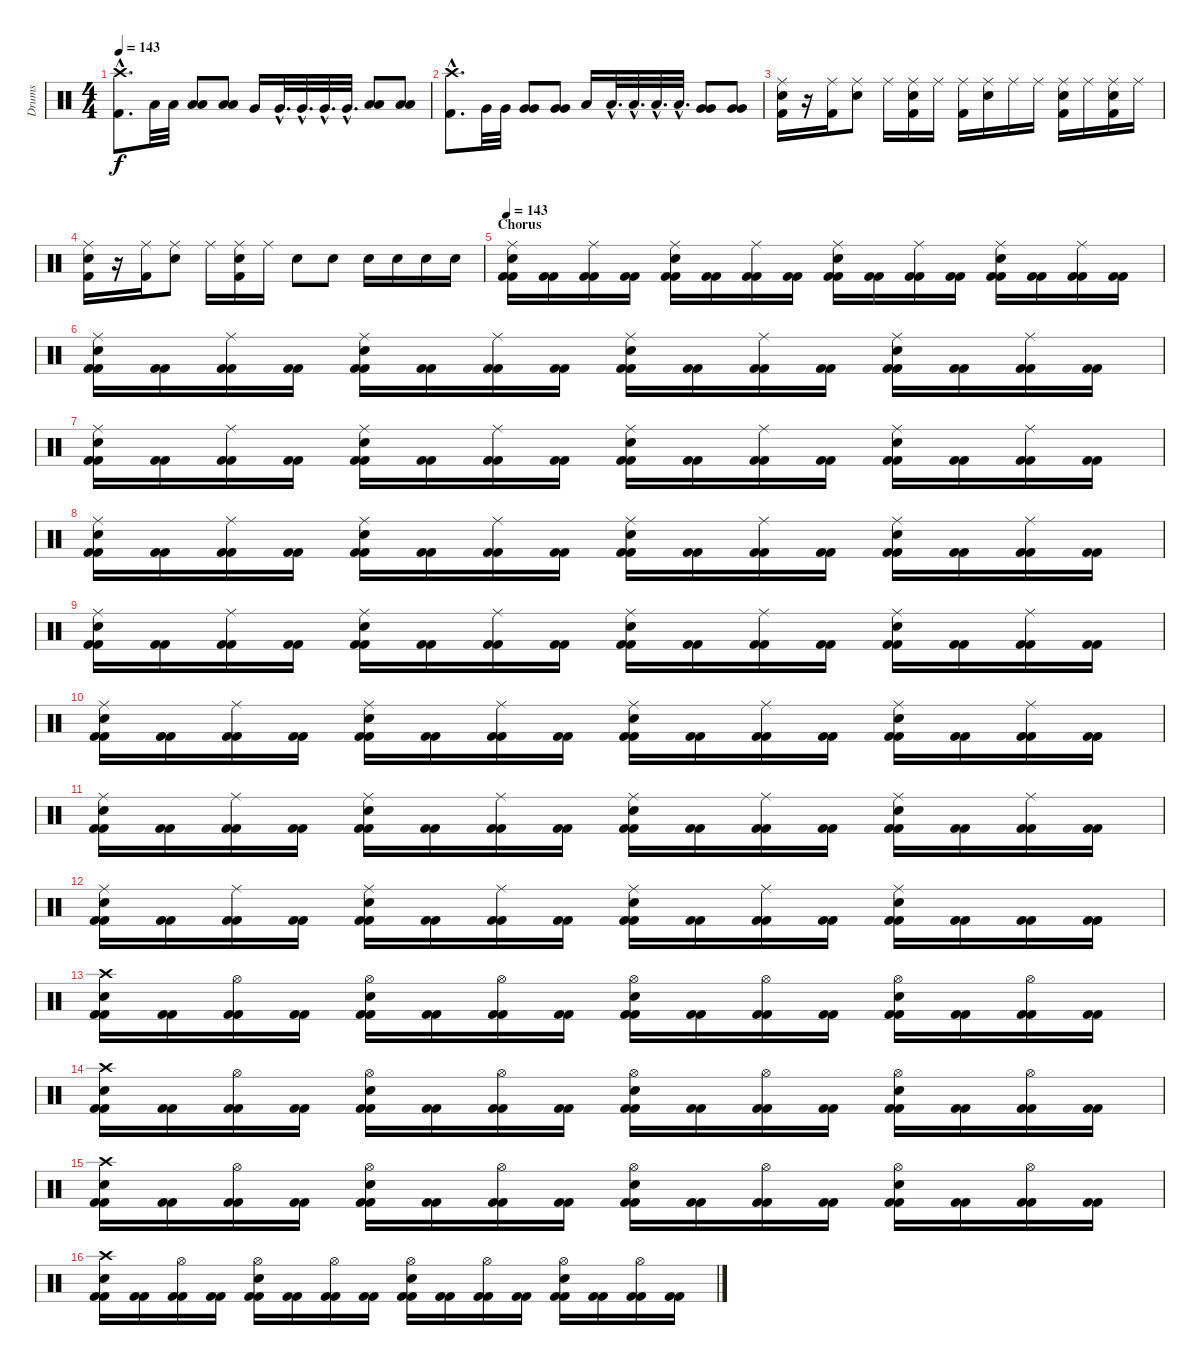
\track ("Drums" "Drums") {instrument percussion}
\staff {score}
\articulation defaults
\ts (4 4)
\tempo 143
\clef neutral
\ks c
("Kick (hit) 2"{hac} "Crash high (hit)"{hac}).8{d dy f} "Low Tom (hit)".32 "Low Tom (hit)".32 ("Low Tom (hit)" "Low Tom (hit)").8 ("Low Tom (hit)" "Low Tom (hit)").8 "Very Low Tom (hit)".16 "Very Low Tom (hit)"{hac}.32{d} "Very Low Tom (hit)"{hac}.32{d} "Very Low Tom (hit)"{hac}.32{d} "Very Low Tom (hit)"{hac}.32{d} ("Low Tom (hit)" "Low Tom (hit)").8 ("Low Tom (hit)" "Low Tom (hit)").8 |
("Kick (hit) 2"{hac} "Crash high (hit)"{hac}).8{d} "Very Low Tom (hit)".32 "Very Low Tom (hit)".32 ("Very Low Tom (hit)" "Very Low Tom (hit)").8 ("Very Low Tom (hit)" "Very Low Tom (hit)").8 "Low Floor Tom (hit)".16 "Low Floor Tom (hit)"{hac}.32{d} "Low Floor Tom (hit)"{hac}.32{d} "Low Floor Tom (hit)"{hac}.32{d} "Low Floor Tom (hit)"{hac}.32{d} ("Very Low Tom (hit)" "Very Low Tom (hit)").8 ("Very Low Tom (hit)" "Very Low Tom (hit)").8 |
("Kick (hit) 2" "Electric Snare (hit)" "Ride (middle)").16 r.16 ("Kick (hit) 2" "Ride (middle)").16 ("Electric Snare (hit)" "Ride (middle)").8 "Ride (middle)".16 ("Kick (hit) 2" "Electric Snare (hit)" "Ride (middle)").16 "Ride (middle)".16 ("Kick (hit) 2" "Ride (middle)").16 ("Electric Snare (hit)" "Ride (middle)").16 "Ride (middle)".16 "Ride (middle)".16 ("Kick (hit) 2" "Electric Snare (hit)" "Ride (middle)").16 "Ride (middle)".16 ("Kick (hit) 2" "Electric Snare (hit)" "Ride (middle)").16 "Ride (middle)".16 |
("Kick (hit) 2" "Electric Snare (hit)" "Ride (middle)").16 r.16 ("Kick (hit) 2" "Ride (middle)").16 ("Electric Snare (hit)" "Ride (middle)").8 "Ride (middle)".16 ("Kick (hit) 2" "Electric Snare (hit)" "Ride (middle)").16 "Ride (middle)".16 "Electric Snare (hit)".8 "Electric Snare (hit)".8 "Electric Snare (hit)".16 "Electric Snare (hit)".16 "Electric Snare (hit)".16 "Electric Snare (hit)".16 |
\section ("" "Chorus")
\tempo 143
("Kick (hit) 2" "Kick (hit) 2" "Electric Snare (hit)" "Ride (middle)").16 ("Kick (hit) 2" "Kick (hit) 2").16 ("Kick (hit) 2" "Kick (hit) 2" "Ride (middle)").16 ("Kick (hit) 2" "Kick (hit) 2").16 ("Kick (hit) 2" "Kick (hit) 2" "Electric Snare (hit)" "Ride (middle)").16 ("Kick (hit) 2" "Kick (hit) 2").16 ("Kick (hit) 2" "Kick (hit) 2" "Ride (middle)").16 ("Kick (hit) 2" "Kick (hit) 2").16 ("Kick (hit) 2" "Kick (hit) 2" "Electric Snare (hit)" "Ride (middle)").16 ("Kick (hit) 2" "Kick (hit) 2").16 ("Kick (hit) 2" "Kick (hit) 2" "Ride (middle)").16 ("Kick (hit) 2" "Kick (hit) 2").16 ("Kick (hit) 2" "Kick (hit) 2" "Electric Snare (hit)" "Ride (middle)").16 ("Kick (hit) 2" "Kick (hit) 2").16 ("Kick (hit) 2" "Kick (hit) 2" "Ride (middle)").16 ("Kick (hit) 2" "Kick (hit) 2").16 |
("Kick (hit) 2" "Kick (hit) 2" "Electric Snare (hit)" "Ride (middle)").16 ("Kick (hit) 2" "Kick (hit) 2").16 ("Kick (hit) 2" "Kick (hit) 2" "Ride (middle)").16 ("Kick (hit) 2" "Kick (hit) 2").16 ("Kick (hit) 2" "Kick (hit) 2" "Electric Snare (hit)" "Ride (middle)").16 ("Kick (hit) 2" "Kick (hit) 2").16 ("Kick (hit) 2" "Kick (hit) 2" "Ride (middle)").16 ("Kick (hit) 2" "Kick (hit) 2").16 ("Kick (hit) 2" "Kick (hit) 2" "Electric Snare (hit)" "Ride (middle)").16 ("Kick (hit) 2" "Kick (hit) 2").16 ("Kick (hit) 2" "Kick (hit) 2" "Ride (middle)").16 ("Kick (hit) 2" "Kick (hit) 2").16 ("Kick (hit) 2" "Kick (hit) 2" "Electric Snare (hit)" "Ride (middle)").16 ("Kick (hit) 2" "Kick (hit) 2").16 ("Kick (hit) 2" "Kick (hit) 2" "Ride (middle)").16 ("Kick (hit) 2" "Kick (hit) 2").16 |
("Kick (hit) 2" "Kick (hit) 2" "Electric Snare (hit)" "Ride (middle)").16 ("Kick (hit) 2" "Kick (hit) 2").16 ("Kick (hit) 2" "Kick (hit) 2" "Ride (middle)").16 ("Kick (hit) 2" "Kick (hit) 2").16 ("Kick (hit) 2" "Kick (hit) 2" "Electric Snare (hit)" "Ride (middle)").16 ("Kick (hit) 2" "Kick (hit) 2").16 ("Kick (hit) 2" "Kick (hit) 2" "Ride (middle)").16 ("Kick (hit) 2" "Kick (hit) 2").16 ("Kick (hit) 2" "Kick (hit) 2" "Electric Snare (hit)" "Ride (middle)").16 ("Kick (hit) 2" "Kick (hit) 2").16 ("Kick (hit) 2" "Kick (hit) 2" "Ride (middle)").16 ("Kick (hit) 2" "Kick (hit) 2").16 ("Kick (hit) 2" "Kick (hit) 2" "Electric Snare (hit)" "Ride (middle)").16 ("Kick (hit) 2" "Kick (hit) 2").16 ("Kick (hit) 2" "Kick (hit) 2" "Ride (middle)").16 ("Kick (hit) 2" "Kick (hit) 2").16 |
("Kick (hit) 2" "Kick (hit) 2" "Electric Snare (hit)" "Ride (middle)").16 ("Kick (hit) 2" "Kick (hit) 2").16 ("Kick (hit) 2" "Kick (hit) 2" "Ride (middle)").16 ("Kick (hit) 2" "Kick (hit) 2").16 ("Kick (hit) 2" "Kick (hit) 2" "Electric Snare (hit)" "Ride (middle)").16 ("Kick (hit) 2" "Kick (hit) 2").16 ("Kick (hit) 2" "Kick (hit) 2" "Ride (middle)").16 ("Kick (hit) 2" "Kick (hit) 2").16 ("Kick (hit) 2" "Kick (hit) 2" "Electric Snare (hit)" "Ride (middle)").16 ("Kick (hit) 2" "Kick (hit) 2").16 ("Kick (hit) 2" "Kick (hit) 2" "Ride (middle)").16 ("Kick (hit) 2" "Kick (hit) 2").16 ("Kick (hit) 2" "Kick (hit) 2" "Electric Snare (hit)" "Ride (middle)").16 ("Kick (hit) 2" "Kick (hit) 2").16 ("Kick (hit) 2" "Kick (hit) 2" "Ride (middle)").16 ("Kick (hit) 2" "Kick (hit) 2").16 |
("Kick (hit) 2" "Kick (hit) 2" "Electric Snare (hit)" "Ride (middle)").16 ("Kick (hit) 2" "Kick (hit) 2").16 ("Kick (hit) 2" "Kick (hit) 2" "Ride (middle)").16 ("Kick (hit) 2" "Kick (hit) 2").16 ("Kick (hit) 2" "Kick (hit) 2" "Electric Snare (hit)" "Ride (middle)").16 ("Kick (hit) 2" "Kick (hit) 2").16 ("Kick (hit) 2" "Kick (hit) 2" "Ride (middle)").16 ("Kick (hit) 2" "Kick (hit) 2").16 ("Kick (hit) 2" "Kick (hit) 2" "Electric Snare (hit)" "Ride (middle)").16 ("Kick (hit) 2" "Kick (hit) 2").16 ("Kick (hit) 2" "Kick (hit) 2" "Ride (middle)").16 ("Kick (hit) 2" "Kick (hit) 2").16 ("Kick (hit) 2" "Kick (hit) 2" "Electric Snare (hit)" "Ride (middle)").16 ("Kick (hit) 2" "Kick (hit) 2").16 ("Kick (hit) 2" "Kick (hit) 2" "Ride (middle)").16 ("Kick (hit) 2" "Kick (hit) 2").16 |
("Kick (hit) 2" "Kick (hit) 2" "Electric Snare (hit)" "Ride (middle)").16 ("Kick (hit) 2" "Kick (hit) 2").16 ("Kick (hit) 2" "Kick (hit) 2" "Ride (middle)").16 ("Kick (hit) 2" "Kick (hit) 2").16 ("Kick (hit) 2" "Kick (hit) 2" "Electric Snare (hit)" "Ride (middle)").16 ("Kick (hit) 2" "Kick (hit) 2").16 ("Kick (hit) 2" "Kick (hit) 2" "Ride (middle)").16 ("Kick (hit) 2" "Kick (hit) 2").16 ("Kick (hit) 2" "Kick (hit) 2" "Electric Snare (hit)" "Ride (middle)").16 ("Kick (hit) 2" "Kick (hit) 2").16 ("Kick (hit) 2" "Kick (hit) 2" "Ride (middle)").16 ("Kick (hit) 2" "Kick (hit) 2").16 ("Kick (hit) 2" "Kick (hit) 2" "Electric Snare (hit)" "Ride (middle)").16 ("Kick (hit) 2" "Kick (hit) 2").16 ("Kick (hit) 2" "Kick (hit) 2" "Ride (middle)").16 ("Kick (hit) 2" "Kick (hit) 2").16 |
("Kick (hit) 2" "Kick (hit) 2" "Electric Snare (hit)" "Ride (middle)").16 ("Kick (hit) 2" "Kick (hit) 2").16 ("Kick (hit) 2" "Kick (hit) 2" "Ride (middle)").16 ("Kick (hit) 2" "Kick (hit) 2").16 ("Kick (hit) 2" "Kick (hit) 2" "Electric Snare (hit)" "Ride (middle)").16 ("Kick (hit) 2" "Kick (hit) 2").16 ("Kick (hit) 2" "Kick (hit) 2" "Ride (middle)").16 ("Kick (hit) 2" "Kick (hit) 2").16 ("Kick (hit) 2" "Kick (hit) 2" "Electric Snare (hit)" "Ride (middle)").16 ("Kick (hit) 2" "Kick (hit) 2").16 ("Kick (hit) 2" "Kick (hit) 2" "Ride (middle)").16 ("Kick (hit) 2" "Kick (hit) 2").16 ("Kick (hit) 2" "Kick (hit) 2" "Electric Snare (hit)" "Ride (middle)").16 ("Kick (hit) 2" "Kick (hit) 2").16 ("Kick (hit) 2" "Kick (hit) 2" "Ride (middle)").16 ("Kick (hit) 2" "Kick (hit) 2").16 |
("Kick (hit) 2" "Kick (hit) 2" "Electric Snare (hit)" "Ride (middle)").16 ("Kick (hit) 2" "Kick (hit) 2").16 ("Kick (hit) 2" "Kick (hit) 2" "Ride (middle)").16 ("Kick (hit) 2" "Kick (hit) 2").16 ("Kick (hit) 2" "Kick (hit) 2" "Electric Snare (hit)" "Ride (middle)").16 ("Kick (hit) 2" "Kick (hit) 2").16 ("Kick (hit) 2" "Kick (hit) 2" "Ride (middle)").16 ("Kick (hit) 2" "Kick (hit) 2").16 ("Kick (hit) 2" "Kick (hit) 2" "Electric Snare (hit)" "Ride (middle)").16 ("Kick (hit) 2" "Kick (hit) 2").16 ("Kick (hit) 2" "Kick (hit) 2" "Ride (middle)").16 ("Kick (hit) 2" "Kick (hit) 2").16 ("Kick (hit) 2" "Kick (hit) 2" "Electric Snare (hit)" "Ride (middle)").16 ("Kick (hit) 2" "Kick (hit) 2").16 ("Kick (hit) 2" "Kick (hit) 2").16 ("Kick (hit) 2" "Kick (hit) 2").16 |
("Kick (hit) 2" "Kick (hit) 2" "Electric Snare (hit)" "Crash high (hit)").16 ("Kick (hit) 2" "Kick (hit) 2").16 ("Kick (hit) 2" "Kick (hit) 2" "Hi-Hat (open)").16 ("Kick (hit) 2" "Kick (hit) 2").16 ("Kick (hit) 2" "Kick (hit) 2" "Electric Snare (hit)" "Hi-Hat (open)").16 ("Kick (hit) 2" "Kick (hit) 2").16 ("Kick (hit) 2" "Kick (hit) 2" "Hi-Hat (open)").16 ("Kick (hit) 2" "Kick (hit) 2").16 ("Kick (hit) 2" "Kick (hit) 2" "Electric Snare (hit)" "Hi-Hat (open)").16 ("Kick (hit) 2" "Kick (hit) 2").16 ("Kick (hit) 2" "Kick (hit) 2" "Hi-Hat (open)").16 ("Kick (hit) 2" "Kick (hit) 2").16 ("Kick (hit) 2" "Kick (hit) 2" "Electric Snare (hit)" "Hi-Hat (open)").16 ("Kick (hit) 2" "Kick (hit) 2").16 ("Kick (hit) 2" "Kick (hit) 2" "Hi-Hat (open)").16 ("Kick (hit) 2" "Kick (hit) 2").16 |
("Kick (hit) 2" "Kick (hit) 2" "Electric Snare (hit)" "Crash high (hit)").16 ("Kick (hit) 2" "Kick (hit) 2").16 ("Kick (hit) 2" "Kick (hit) 2" "Hi-Hat (open)").16 ("Kick (hit) 2" "Kick (hit) 2").16 ("Kick (hit) 2" "Kick (hit) 2" "Electric Snare (hit)" "Hi-Hat (open)").16 ("Kick (hit) 2" "Kick (hit) 2").16 ("Kick (hit) 2" "Kick (hit) 2" "Hi-Hat (open)").16 ("Kick (hit) 2" "Kick (hit) 2").16 ("Kick (hit) 2" "Kick (hit) 2" "Electric Snare (hit)" "Hi-Hat (open)").16 ("Kick (hit) 2" "Kick (hit) 2").16 ("Kick (hit) 2" "Kick (hit) 2" "Hi-Hat (open)").16 ("Kick (hit) 2" "Kick (hit) 2").16 ("Kick (hit) 2" "Kick (hit) 2" "Electric Snare (hit)" "Hi-Hat (open)").16 ("Kick (hit) 2" "Kick (hit) 2").16 ("Kick (hit) 2" "Kick (hit) 2" "Hi-Hat (open)").16 ("Kick (hit) 2" "Kick (hit) 2").16 |
("Kick (hit) 2" "Kick (hit) 2" "Electric Snare (hit)" "Crash high (hit)").16 ("Kick (hit) 2" "Kick (hit) 2").16 ("Kick (hit) 2" "Kick (hit) 2" "Hi-Hat (open)").16 ("Kick (hit) 2" "Kick (hit) 2").16 ("Kick (hit) 2" "Kick (hit) 2" "Electric Snare (hit)" "Hi-Hat (open)").16 ("Kick (hit) 2" "Kick (hit) 2").16 ("Kick (hit) 2" "Kick (hit) 2" "Hi-Hat (open)").16 ("Kick (hit) 2" "Kick (hit) 2").16 ("Kick (hit) 2" "Kick (hit) 2" "Electric Snare (hit)" "Hi-Hat (open)").16 ("Kick (hit) 2" "Kick (hit) 2").16 ("Kick (hit) 2" "Kick (hit) 2" "Hi-Hat (open)").16 ("Kick (hit) 2" "Kick (hit) 2").16 ("Kick (hit) 2" "Kick (hit) 2" "Electric Snare (hit)" "Hi-Hat (open)").16 ("Kick (hit) 2" "Kick (hit) 2").16 ("Kick (hit) 2" "Kick (hit) 2" "Hi-Hat (open)").16 ("Kick (hit) 2" "Kick (hit) 2").16 |
("Kick (hit) 2" "Kick (hit) 2" "Electric Snare (hit)" "Crash high (hit)").16 ("Kick (hit) 2" "Kick (hit) 2").16 ("Kick (hit) 2" "Kick (hit) 2" "Hi-Hat (open)").16 ("Kick (hit) 2" "Kick (hit) 2").16 ("Kick (hit) 2" "Kick (hit) 2" "Electric Snare (hit)" "Hi-Hat (open)").16 ("Kick (hit) 2" "Kick (hit) 2").16 ("Kick (hit) 2" "Kick (hit) 2" "Hi-Hat (open)").16 ("Kick (hit) 2" "Kick (hit) 2").16 ("Kick (hit) 2" "Kick (hit) 2" "Electric Snare (hit)" "Hi-Hat (open)").16 ("Kick (hit) 2" "Kick (hit) 2").16 ("Kick (hit) 2" "Kick (hit) 2" "Hi-Hat (open)").16 ("Kick (hit) 2" "Kick (hit) 2").16 ("Kick (hit) 2" "Kick (hit) 2" "Electric Snare (hit)" "Hi-Hat (open)").16 ("Kick (hit) 2" "Kick (hit) 2").16 ("Kick (hit) 2" "Kick (hit) 2" "Hi-Hat (open)").16 ("Kick (hit) 2" "Kick (hit) 2").16
